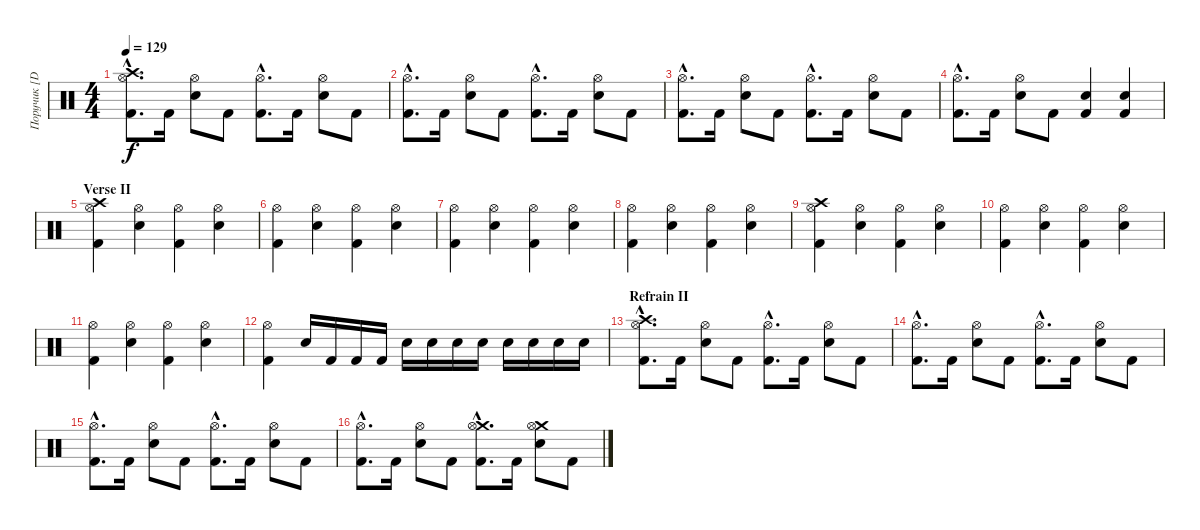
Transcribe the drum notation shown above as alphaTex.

\track ("Поручик [Drums]" "Поручик [D") {instrument percussion}
\staff {score}
\articulation defaults
\ts (4 4)
\tempo 129
\clef neutral
\ks c
("Crash high (hit)"{hac} "Hi-Hat (open)"{hac} "Kick (hit) 2"{hac}).8{d dy f} "Kick (hit) 2".16 ("Hi-Hat (open)" "Snare (hit) 2").8 "Kick (hit) 2".8 ("Hi-Hat (open)"{hac} "Kick (hit) 2"{hac}).8{d} "Kick (hit) 2".16 ("Hi-Hat (open)" "Snare (hit) 2").8 "Kick (hit) 2".8 |
("Hi-Hat (open)"{hac} "Kick (hit) 2"{hac}).8{d} "Kick (hit) 2".16 ("Hi-Hat (open)" "Snare (hit) 2").8 "Kick (hit) 2".8 ("Hi-Hat (open)"{hac} "Kick (hit) 2"{hac}).8{d} "Kick (hit) 2".16 ("Hi-Hat (open)" "Snare (hit) 2").8 "Kick (hit) 2".8 |
("Hi-Hat (open)"{hac} "Kick (hit) 2"{hac}).8{d} "Kick (hit) 2".16 ("Hi-Hat (open)" "Snare (hit) 2").8 "Kick (hit) 2".8 ("Hi-Hat (open)"{hac} "Kick (hit) 2"{hac}).8{d} "Kick (hit) 2".16 ("Hi-Hat (open)" "Snare (hit) 2").8 "Kick (hit) 2".8 |
("Hi-Hat (open)"{hac} "Kick (hit) 2"{hac}).8{d} "Kick (hit) 2".16 ("Hi-Hat (open)" "Snare (hit) 2").8 "Kick (hit) 2".8 ("Snare (hit) 2" "Kick (hit) 2").4 ("Snare (hit) 2" "Kick (hit) 2").4 |
\section ("" "Verse II")
("Crash high (hit)" "Hi-Hat (open)" "Kick (hit) 2").4 ("Hi-Hat (open)" "Snare (hit) 2").4 ("Hi-Hat (open)" "Kick (hit) 2").4 ("Hi-Hat (open)" "Snare (hit) 2").4 |
("Hi-Hat (open)" "Kick (hit) 2").4 ("Hi-Hat (open)" "Snare (hit) 2").4 ("Hi-Hat (open)" "Kick (hit) 2").4 ("Hi-Hat (open)" "Snare (hit) 2").4 |
("Hi-Hat (open)" "Kick (hit) 2").4 ("Hi-Hat (open)" "Snare (hit) 2").4 ("Hi-Hat (open)" "Kick (hit) 2").4 ("Hi-Hat (open)" "Snare (hit) 2").4 |
("Hi-Hat (open)" "Kick (hit) 2").4 ("Hi-Hat (open)" "Snare (hit) 2").4 ("Hi-Hat (open)" "Kick (hit) 2").4 ("Hi-Hat (open)" "Snare (hit) 2").4 |
("Crash high (hit)" "Hi-Hat (open)" "Kick (hit) 2").4 ("Hi-Hat (open)" "Snare (hit) 2").4 ("Hi-Hat (open)" "Kick (hit) 2").4 ("Hi-Hat (open)" "Snare (hit) 2").4 |
("Hi-Hat (open)" "Kick (hit) 2").4 ("Hi-Hat (open)" "Snare (hit) 2").4 ("Hi-Hat (open)" "Kick (hit) 2").4 ("Hi-Hat (open)" "Snare (hit) 2").4 |
("Hi-Hat (open)" "Kick (hit) 2").4 ("Hi-Hat (open)" "Snare (hit) 2").4 ("Hi-Hat (open)" "Kick (hit) 2").4 ("Hi-Hat (open)" "Snare (hit) 2").4 |
("Hi-Hat (open)" "Kick (hit) 2").4 "Snare (hit) 2".16 "Kick (hit) 2".16 "Kick (hit) 2".16 "Kick (hit) 2".16 "Snare (hit) 2".16 "Snare (hit) 2".16 "Snare (hit) 2".16 "Snare (hit) 2".16 "Snare (hit) 2".16 "Snare (hit) 2".16 "Snare (hit) 2".16 "Snare (hit) 2".16 |
\section ("" "Refrain II")
("Crash high (hit)"{hac} "Hi-Hat (open)"{hac} "Kick (hit) 2"{hac}).8{d} "Kick (hit) 2".16 ("Hi-Hat (open)" "Snare (hit) 2").8 "Kick (hit) 2".8 ("Hi-Hat (open)"{hac} "Kick (hit) 2"{hac}).8{d} "Kick (hit) 2".16 ("Hi-Hat (open)" "Snare (hit) 2").8 "Kick (hit) 2".8 |
("Hi-Hat (open)"{hac} "Kick (hit) 2"{hac}).8{d} "Kick (hit) 2".16 ("Hi-Hat (open)" "Snare (hit) 2").8 "Kick (hit) 2".8 ("Hi-Hat (open)"{hac} "Kick (hit) 2"{hac}).8{d} "Kick (hit) 2".16 ("Hi-Hat (open)" "Snare (hit) 2").8 "Kick (hit) 2".8 |
("Hi-Hat (open)"{hac} "Kick (hit) 2"{hac}).8{d} "Kick (hit) 2".16 ("Hi-Hat (open)" "Snare (hit) 2").8 "Kick (hit) 2".8 ("Hi-Hat (open)"{hac} "Kick (hit) 2"{hac}).8{d} "Kick (hit) 2".16 ("Hi-Hat (open)" "Snare (hit) 2").8 "Kick (hit) 2".8 |
("Hi-Hat (open)"{hac} "Kick (hit) 2"{hac}).8{d} "Kick (hit) 2".16 ("Hi-Hat (open)" "Snare (hit) 2").8 "Kick (hit) 2".8 ("Crash medium (hit)"{hac} "Hi-Hat (open)"{hac} "Kick (hit) 2"{hac}).8{d} "Kick (hit) 2".16 ("Crash medium (hit)" "Hi-Hat (open)" "Snare (hit) 2").8 "Kick (hit) 2".8
